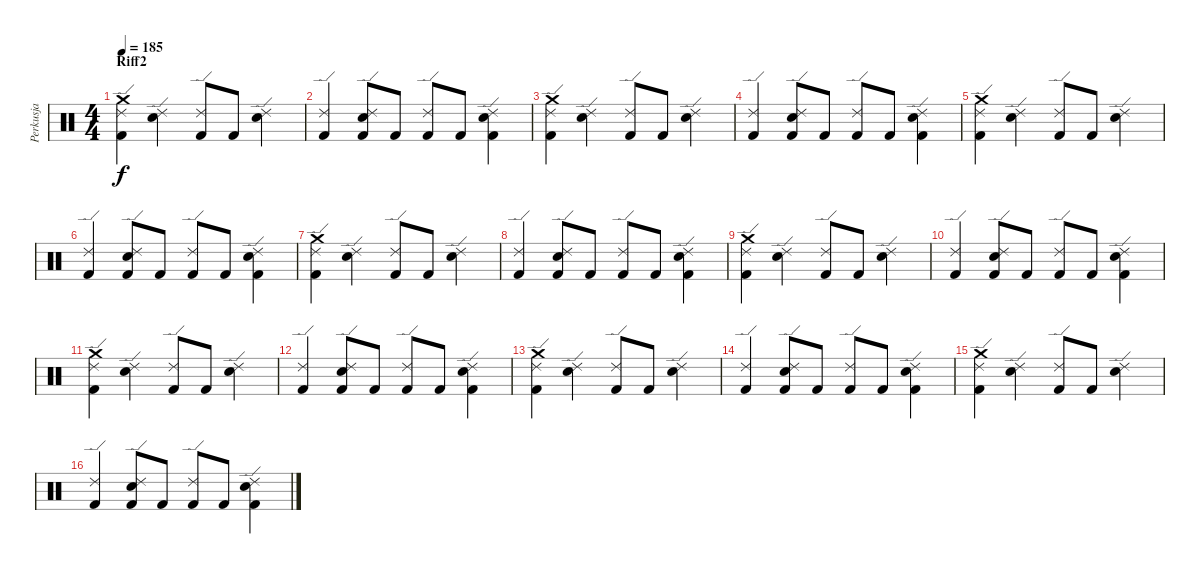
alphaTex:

\track ("Perkusja" "Perkusja") {instrument percussion}
\staff {score}
\articulation defaults
\ts (4 4)
\section ("" "Riff2")
\tempo 185
\clef neutral
\ks c
("Crash medium (hit)" "Ride (edge) 2" "Kick (hit) 2").4{dy f} ("Electric Snare (hit)" "Ride (edge) 2").4 ("Ride (edge) 2" "Kick (hit) 2").8 "Kick (hit) 2".8 ("Electric Snare (hit)" "Ride (edge) 2").4 |
("Ride (edge) 2" "Kick (hit) 2").4 ("Electric Snare (hit)" "Ride (edge) 2" "Kick (hit) 2").8 "Kick (hit) 2".8 ("Ride (edge) 2" "Kick (hit) 2").8 "Kick (hit) 2".8 ("Electric Snare (hit)" "Ride (edge) 2" "Kick (hit) 2").4 |
("Crash medium (hit)" "Ride (edge) 2" "Kick (hit) 2").4 ("Electric Snare (hit)" "Ride (edge) 2").4 ("Ride (edge) 2" "Kick (hit) 2").8 "Kick (hit) 2".8 ("Electric Snare (hit)" "Ride (edge) 2").4 |
("Ride (edge) 2" "Kick (hit) 2").4 ("Electric Snare (hit)" "Ride (edge) 2" "Kick (hit) 2").8 "Kick (hit) 2".8 ("Ride (edge) 2" "Kick (hit) 2").8 "Kick (hit) 2".8 ("Electric Snare (hit)" "Ride (edge) 2" "Kick (hit) 2").4 |
("Crash medium (hit)" "Ride (edge) 2" "Kick (hit) 2").4 ("Electric Snare (hit)" "Ride (edge) 2").4 ("Ride (edge) 2" "Kick (hit) 2").8 "Kick (hit) 2".8 ("Electric Snare (hit)" "Ride (edge) 2").4 |
("Ride (edge) 2" "Kick (hit) 2").4 ("Electric Snare (hit)" "Ride (edge) 2" "Kick (hit) 2").8 "Kick (hit) 2".8 ("Ride (edge) 2" "Kick (hit) 2").8 "Kick (hit) 2".8 ("Electric Snare (hit)" "Ride (edge) 2" "Kick (hit) 2").4 |
("Crash medium (hit)" "Ride (edge) 2" "Kick (hit) 2").4 ("Electric Snare (hit)" "Ride (edge) 2").4 ("Ride (edge) 2" "Kick (hit) 2").8 "Kick (hit) 2".8 ("Electric Snare (hit)" "Ride (edge) 2").4 |
("Ride (edge) 2" "Kick (hit) 2").4 ("Electric Snare (hit)" "Ride (edge) 2" "Kick (hit) 2").8 "Kick (hit) 2".8 ("Ride (edge) 2" "Kick (hit) 2").8 "Kick (hit) 2".8 ("Electric Snare (hit)" "Ride (edge) 2" "Kick (hit) 2").4 |
("Crash medium (hit)" "Ride (edge) 2" "Kick (hit) 2").4 ("Electric Snare (hit)" "Ride (edge) 2").4 ("Ride (edge) 2" "Kick (hit) 2").8 "Kick (hit) 2".8 ("Electric Snare (hit)" "Ride (edge) 2").4 |
("Ride (edge) 2" "Kick (hit) 2").4 ("Electric Snare (hit)" "Ride (edge) 2" "Kick (hit) 2").8 "Kick (hit) 2".8 ("Ride (edge) 2" "Kick (hit) 2").8 "Kick (hit) 2".8 ("Electric Snare (hit)" "Ride (edge) 2" "Kick (hit) 2").4 |
("Crash medium (hit)" "Ride (edge) 2" "Kick (hit) 2").4 ("Electric Snare (hit)" "Ride (edge) 2").4 ("Ride (edge) 2" "Kick (hit) 2").8 "Kick (hit) 2".8 ("Electric Snare (hit)" "Ride (edge) 2").4 |
("Ride (edge) 2" "Kick (hit) 2").4 ("Electric Snare (hit)" "Ride (edge) 2" "Kick (hit) 2").8 "Kick (hit) 2".8 ("Ride (edge) 2" "Kick (hit) 2").8 "Kick (hit) 2".8 ("Electric Snare (hit)" "Ride (edge) 2" "Kick (hit) 2").4 |
("Crash medium (hit)" "Ride (edge) 2" "Kick (hit) 2").4 ("Electric Snare (hit)" "Ride (edge) 2").4 ("Ride (edge) 2" "Kick (hit) 2").8 "Kick (hit) 2".8 ("Electric Snare (hit)" "Ride (edge) 2").4 |
("Ride (edge) 2" "Kick (hit) 2").4 ("Electric Snare (hit)" "Ride (edge) 2" "Kick (hit) 2").8 "Kick (hit) 2".8 ("Ride (edge) 2" "Kick (hit) 2").8 "Kick (hit) 2".8 ("Electric Snare (hit)" "Ride (edge) 2" "Kick (hit) 2").4 |
("Crash medium (hit)" "Ride (edge) 2" "Kick (hit) 2").4 ("Electric Snare (hit)" "Ride (edge) 2").4 ("Ride (edge) 2" "Kick (hit) 2").8 "Kick (hit) 2".8 ("Electric Snare (hit)" "Ride (edge) 2").4 |
("Ride (edge) 2" "Kick (hit) 2").4 ("Electric Snare (hit)" "Ride (edge) 2" "Kick (hit) 2").8 "Kick (hit) 2".8 ("Ride (edge) 2" "Kick (hit) 2").8 "Kick (hit) 2".8 ("Electric Snare (hit)" "Ride (edge) 2" "Kick (hit) 2").4
